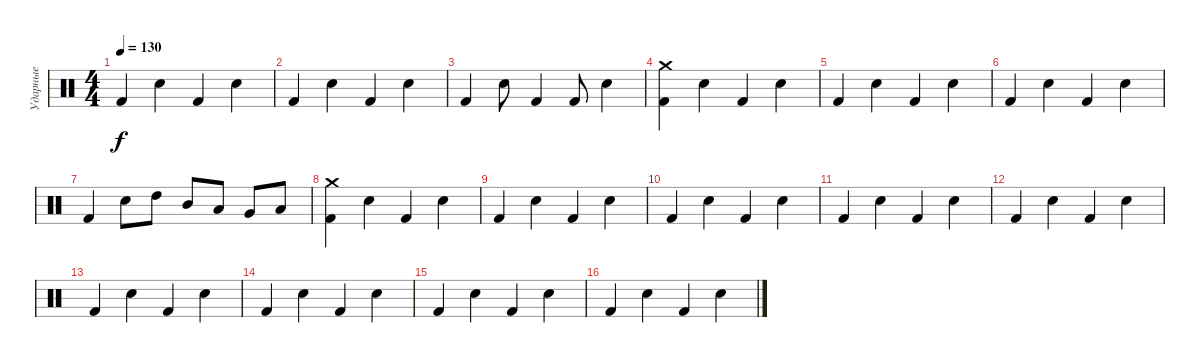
\track ("Ударные" "Ударные") {instrument percussion}
\staff {score}
\articulation defaults
\ts (4 4)
\tempo 130
\clef neutral
\ks c "Kick (hit) 2".4{dy f} "Snare (hit) 2".4 "Kick (hit) 2".4 "Snare (hit) 2".4
|
"Kick (hit) 2".4 "Snare (hit) 2".4 "Kick (hit) 2".4 "Snare (hit) 2".4 |
"Kick (hit) 2".4 "Snare (hit) 2".8 "Kick (hit) 2".4 "Kick (hit) 2".8 "Snare (hit) 2".4 |
("Kick (hit) 2" "Crash medium (hit)").4 "Snare (hit) 2".4 "Kick (hit) 2".4 "Snare (hit) 2".4 |
"Kick (hit) 2".4 "Snare (hit) 2".4 "Kick (hit) 2".4 "Snare (hit) 2".4 |
"Kick (hit) 2".4 "Snare (hit) 2".4 "Kick (hit) 2".4 "Snare (hit) 2".4 |
"Kick (hit) 2".4 "Snare (hit) 2".8 "High Tom (hit)".8 "Mid Tom (hit)".8 "Low Tom (hit)".8 "Very Low Tom (hit)".8 "Low Floor Tom (hit)".8 |
("Kick (hit) 2" "Crash medium (hit)").4 "Snare (hit) 2".4 "Kick (hit) 2".4 "Snare (hit) 2".4 |
"Kick (hit) 2".4 "Snare (hit) 2".4 "Kick (hit) 2".4 "Snare (hit) 2".4 |
"Kick (hit) 2".4 "Snare (hit) 2".4 "Kick (hit) 2".4 "Snare (hit) 2".4 |
"Kick (hit) 2".4 "Snare (hit) 2".4 "Kick (hit) 2".4 "Snare (hit) 2".4 |
"Kick (hit) 2".4 "Snare (hit) 2".4 "Kick (hit) 2".4 "Snare (hit) 2".4 |
"Kick (hit) 2".4 "Snare (hit) 2".4 "Kick (hit) 2".4 "Snare (hit) 2".4 |
"Kick (hit) 2".4 "Snare (hit) 2".4 "Kick (hit) 2".4 "Snare (hit) 2".4 |
"Kick (hit) 2".4 "Snare (hit) 2".4 "Kick (hit) 2".4 "Snare (hit) 2".4 |
"Kick (hit) 2".4 "Snare (hit) 2".4 "Kick (hit) 2".4 "Snare (hit) 2".4
